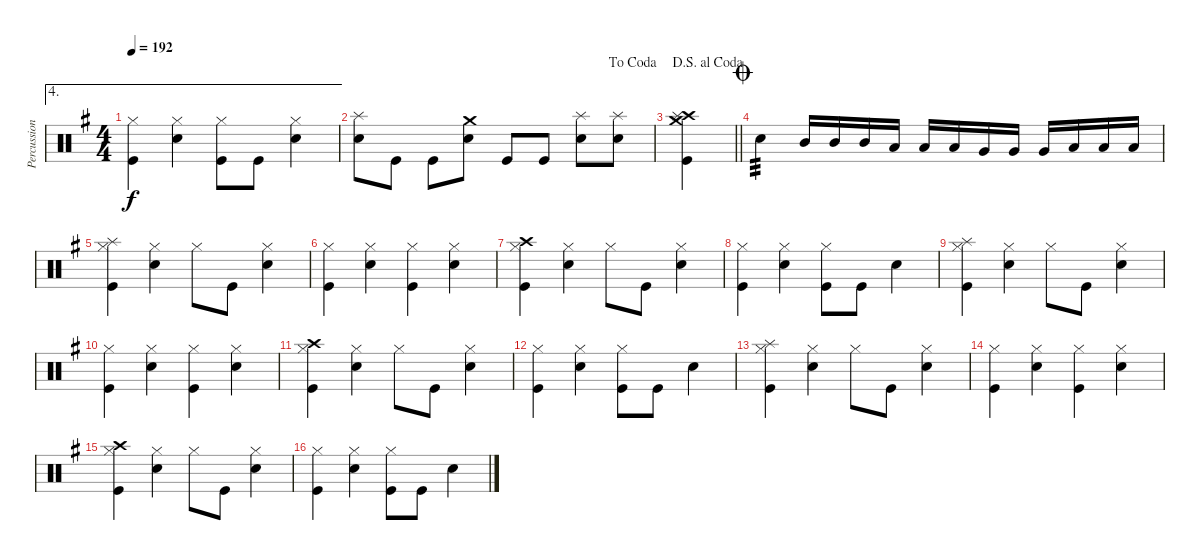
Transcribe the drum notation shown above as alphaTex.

\track ("Percussion" "Percussion") {instrument percussion}
\staff {score}
\articulation defaults
\ae 4
\ts (4 4)
\tempo 192
\clef neutral
\ks g
("Hi-Hat (closed)" "Kick (hit)").4{dy f} ("Hi-Hat (closed)" "Snare (hit) 2").4 ("Hi-Hat (closed)" "Kick (hit)").8 "Kick (hit)".8 ("Hi-Hat (closed)" "Snare (hit) 2").4 |
\jump dacoda
("Splash (hit)" "Snare (hit) 2").8 "Kick (hit)".8 "Kick (hit)".8 ("Crash medium (hit)" "Snare (hit) 2").8 "Kick (hit)".8 "Kick (hit)".8 ("Splash (hit)" "Snare (hit) 2").8 ("Splash (hit)" "Snare (hit) 2").8 |
\jump dalsegnoalcoda
\barLineRight lightlight
("Crash medium (hit)" "Crash high (hit)" "Splash (hit)" "Kick (hit)").4 |
\jump coda "Snare (hit) 2".4{tp 3} "Mid Tom (hit)".16 "Mid Tom (hit)".16 "Mid Tom (hit)".16 "Low Tom (hit)".16 "Low Tom (hit)".16 "Low Tom (hit)".16 "Very Low Tom (hit)".16 "Very Low Tom (hit)".16 "Very Low Tom (hit)".16 "Low Floor Tom (hit)".16 "Low Floor Tom (hit)".16 "Low Floor Tom (hit)".16
|
("Hi-Hat (closed)" "Splash (hit)" "Kick (hit)").4 ("Hi-Hat (closed)" "Snare (hit) 2").4 "Hi-Hat (closed)".8 "Kick (hit)".8 ("Snare (hit) 2" "Hi-Hat (closed)").4 |
("Hi-Hat (closed)" "Kick (hit)").4 ("Hi-Hat (closed)" "Snare (hit) 2").4 ("Hi-Hat (closed)" "Kick (hit)").4 ("Hi-Hat (closed)" "Snare (hit) 2").4 |
("Hi-Hat (closed)" "Crash high (hit)" "Kick (hit)").4 ("Hi-Hat (closed)" "Snare (hit) 2").4 "Hi-Hat (closed)".8 "Kick (hit)".8 ("Snare (hit) 2" "Hi-Hat (closed)").4 |
("Hi-Hat (closed)" "Kick (hit)").4 ("Hi-Hat (closed)" "Snare (hit) 2").4 ("Hi-Hat (closed)" "Kick (hit)").8 "Kick (hit)".8 "Snare (hit) 2".4 |
("Hi-Hat (closed)" "Splash (hit)" "Kick (hit)").4 ("Hi-Hat (closed)" "Snare (hit) 2").4 "Hi-Hat (closed)".8 "Kick (hit)".8 ("Snare (hit) 2" "Hi-Hat (closed)").4 |
("Hi-Hat (closed)" "Kick (hit)").4 ("Hi-Hat (closed)" "Snare (hit) 2").4 ("Hi-Hat (closed)" "Kick (hit)").4 ("Hi-Hat (closed)" "Snare (hit) 2").4 |
("Hi-Hat (closed)" "Crash high (hit)" "Kick (hit)").4 ("Hi-Hat (closed)" "Snare (hit) 2").4 "Hi-Hat (closed)".8 "Kick (hit)".8 ("Snare (hit) 2" "Hi-Hat (closed)").4 |
("Hi-Hat (closed)" "Kick (hit)").4 ("Hi-Hat (closed)" "Snare (hit) 2").4 ("Hi-Hat (closed)" "Kick (hit)").8 "Kick (hit)".8 "Snare (hit) 2".4 |
("Hi-Hat (closed)" "Splash (hit)" "Kick (hit)").4 ("Hi-Hat (closed)" "Snare (hit) 2").4 "Hi-Hat (closed)".8 "Kick (hit)".8 ("Snare (hit) 2" "Hi-Hat (closed)").4 |
("Hi-Hat (closed)" "Kick (hit)").4 ("Hi-Hat (closed)" "Snare (hit) 2").4 ("Hi-Hat (closed)" "Kick (hit)").4 ("Hi-Hat (closed)" "Snare (hit) 2").4 |
("Hi-Hat (closed)" "Crash high (hit)" "Kick (hit)").4 ("Hi-Hat (closed)" "Snare (hit) 2").4 "Hi-Hat (closed)".8 "Kick (hit)".8 ("Snare (hit) 2" "Hi-Hat (closed)").4 |
("Hi-Hat (closed)" "Kick (hit)").4 ("Hi-Hat (closed)" "Snare (hit) 2").4 ("Hi-Hat (closed)" "Kick (hit)").8 "Kick (hit)".8 "Snare (hit) 2".4
